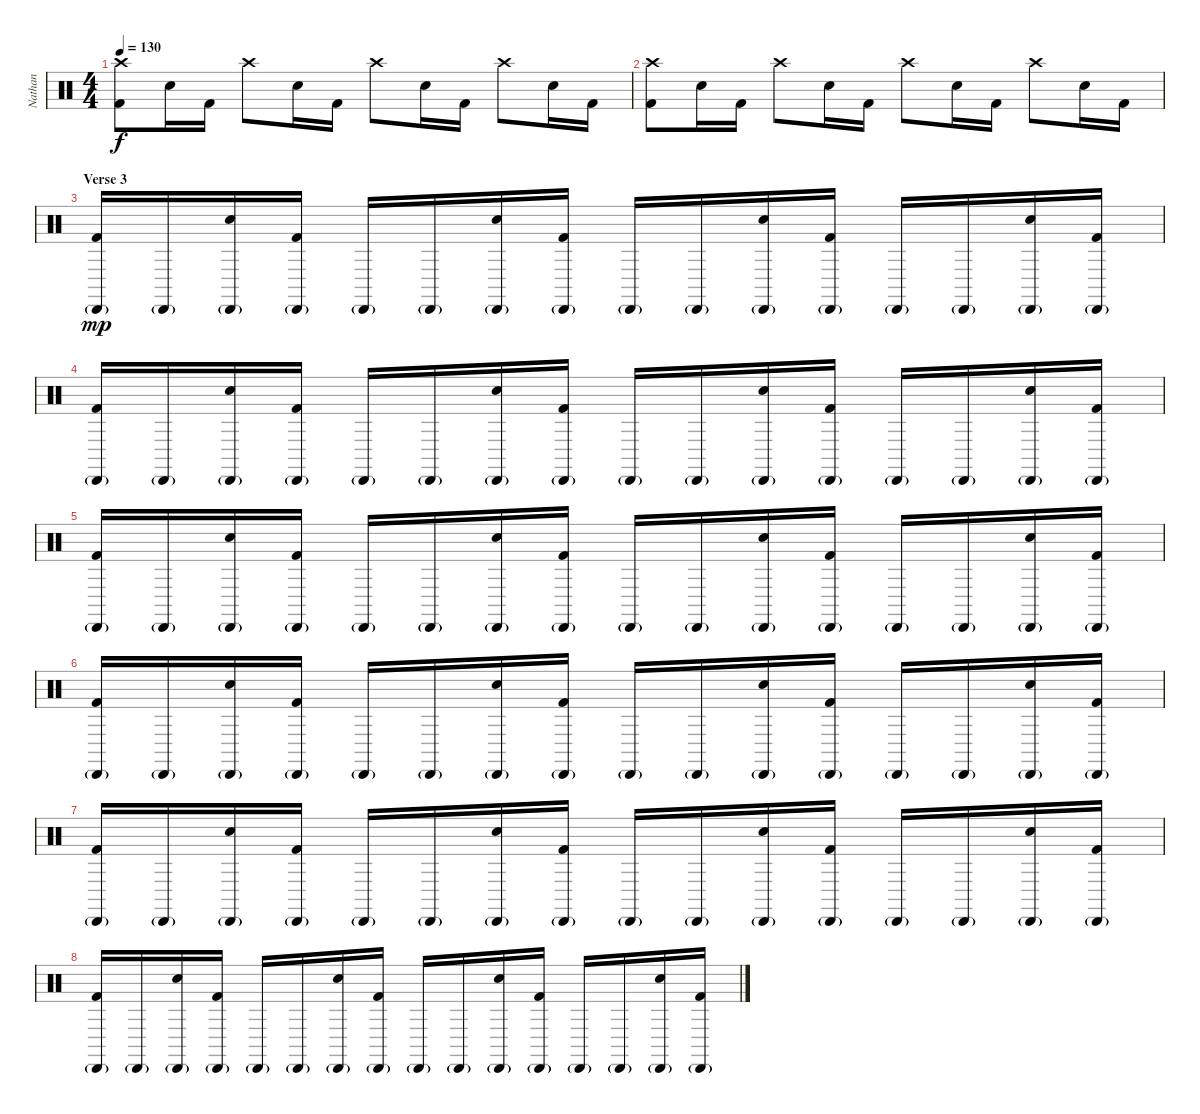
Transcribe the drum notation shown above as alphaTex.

\track ("Nathan" "Nathan") {instrument percussion}
\staff {score}
\articulation defaults
\ts (4 4)
\tempo 130
\clef neutral
\ks c
("Crash high (hit)" "Kick (hit) 2").8{dy f} "Snare (hit) 2".16 "Kick (hit) 2".16 "Crash high (hit)".8 "Snare (hit) 2".16 "Kick (hit) 2".16 "Crash high (hit)".8 "Snare (hit) 2".16 "Kick (hit) 2".16 "Crash high (hit)".8 "Snare (hit) 2".16 "Kick (hit) 2".16 |
("Crash high (hit)" "Kick (hit) 2").8 "Snare (hit) 2".16 "Kick (hit) 2".16 "Crash high (hit)".8 "Snare (hit) 2".16 "Kick (hit) 2".16 "Crash high (hit)".8 "Snare (hit) 2".16 "Kick (hit) 2".16 "Crash high (hit)".8 "Snare (hit) 2".16 "Kick (hit) 2".16 |
\section ("" "Verse 3")
("Cabasa (hit)"{g} "Kick (hit) 2").16{dy mp} "Cabasa (hit)"{g}.16 ("Cabasa (hit)"{g} "Snare (hit) 2").16 ("Cabasa (hit)"{g} "Kick (hit) 2").16 "Cabasa (hit)"{g}.16 "Cabasa (hit)"{g}.16 ("Cabasa (hit)"{g} "Snare (hit) 2").16 ("Cabasa (hit)"{g} "Kick (hit) 2").16 "Cabasa (hit)"{g}.16 "Cabasa (hit)"{g}.16 ("Cabasa (hit)"{g} "Snare (hit) 2").16 ("Cabasa (hit)"{g} "Kick (hit) 2").16 "Cabasa (hit)"{g}.16 "Cabasa (hit)"{g}.16 ("Cabasa (hit)"{g} "Snare (hit) 2").16 ("Cabasa (hit)"{g} "Kick (hit) 2").16 |
("Cabasa (hit)"{g} "Kick (hit) 2").16 "Cabasa (hit)"{g}.16 ("Cabasa (hit)"{g} "Snare (hit) 2").16 ("Cabasa (hit)"{g} "Kick (hit) 2").16 "Cabasa (hit)"{g}.16 "Cabasa (hit)"{g}.16 ("Cabasa (hit)"{g} "Snare (hit) 2").16 ("Cabasa (hit)"{g} "Kick (hit) 2").16 "Cabasa (hit)"{g}.16 "Cabasa (hit)"{g}.16 ("Cabasa (hit)"{g} "Snare (hit) 2").16 ("Cabasa (hit)"{g} "Kick (hit) 2").16 "Cabasa (hit)"{g}.16 "Cabasa (hit)"{g}.16 ("Cabasa (hit)"{g} "Snare (hit) 2").16 ("Cabasa (hit)"{g} "Kick (hit) 2").16 |
("Cabasa (hit)"{g} "Kick (hit) 2").16 "Cabasa (hit)"{g}.16 ("Cabasa (hit)"{g} "Snare (hit) 2").16 ("Cabasa (hit)"{g} "Kick (hit) 2").16 "Cabasa (hit)"{g}.16 "Cabasa (hit)"{g}.16 ("Cabasa (hit)"{g} "Snare (hit) 2").16 ("Cabasa (hit)"{g} "Kick (hit) 2").16 "Cabasa (hit)"{g}.16 "Cabasa (hit)"{g}.16 ("Cabasa (hit)"{g} "Snare (hit) 2").16 ("Cabasa (hit)"{g} "Kick (hit) 2").16 "Cabasa (hit)"{g}.16 "Cabasa (hit)"{g}.16 ("Cabasa (hit)"{g} "Snare (hit) 2").16 ("Cabasa (hit)"{g} "Kick (hit) 2").16 |
("Cabasa (hit)"{g} "Kick (hit) 2").16 "Cabasa (hit)"{g}.16 ("Cabasa (hit)"{g} "Snare (hit) 2").16 ("Cabasa (hit)"{g} "Kick (hit) 2").16 "Cabasa (hit)"{g}.16 "Cabasa (hit)"{g}.16 ("Cabasa (hit)"{g} "Snare (hit) 2").16 ("Cabasa (hit)"{g} "Kick (hit) 2").16 "Cabasa (hit)"{g}.16 "Cabasa (hit)"{g}.16 ("Cabasa (hit)"{g} "Snare (hit) 2").16 ("Cabasa (hit)"{g} "Kick (hit) 2").16 "Cabasa (hit)"{g}.16 "Cabasa (hit)"{g}.16 ("Cabasa (hit)"{g} "Snare (hit) 2").16 ("Cabasa (hit)"{g} "Kick (hit) 2").16 |
("Cabasa (hit)"{g} "Kick (hit) 2").16 "Cabasa (hit)"{g}.16 ("Cabasa (hit)"{g} "Snare (hit) 2").16 ("Cabasa (hit)"{g} "Kick (hit) 2").16 "Cabasa (hit)"{g}.16 "Cabasa (hit)"{g}.16 ("Cabasa (hit)"{g} "Snare (hit) 2").16 ("Cabasa (hit)"{g} "Kick (hit) 2").16 "Cabasa (hit)"{g}.16 "Cabasa (hit)"{g}.16 ("Cabasa (hit)"{g} "Snare (hit) 2").16 ("Cabasa (hit)"{g} "Kick (hit) 2").16 "Cabasa (hit)"{g}.16 "Cabasa (hit)"{g}.16 ("Cabasa (hit)"{g} "Snare (hit) 2").16 ("Cabasa (hit)"{g} "Kick (hit) 2").16 |
("Cabasa (hit)"{g} "Kick (hit) 2").16 "Cabasa (hit)"{g}.16 ("Cabasa (hit)"{g} "Snare (hit) 2").16 ("Cabasa (hit)"{g} "Kick (hit) 2").16 "Cabasa (hit)"{g}.16 "Cabasa (hit)"{g}.16 ("Cabasa (hit)"{g} "Snare (hit) 2").16 ("Cabasa (hit)"{g} "Kick (hit) 2").16 "Cabasa (hit)"{g}.16 "Cabasa (hit)"{g}.16 ("Cabasa (hit)"{g} "Snare (hit) 2").16 ("Cabasa (hit)"{g} "Kick (hit) 2").16 "Cabasa (hit)"{g}.16 "Cabasa (hit)"{g}.16 ("Cabasa (hit)"{g} "Snare (hit) 2").16 ("Cabasa (hit)"{g} "Kick (hit) 2").16
